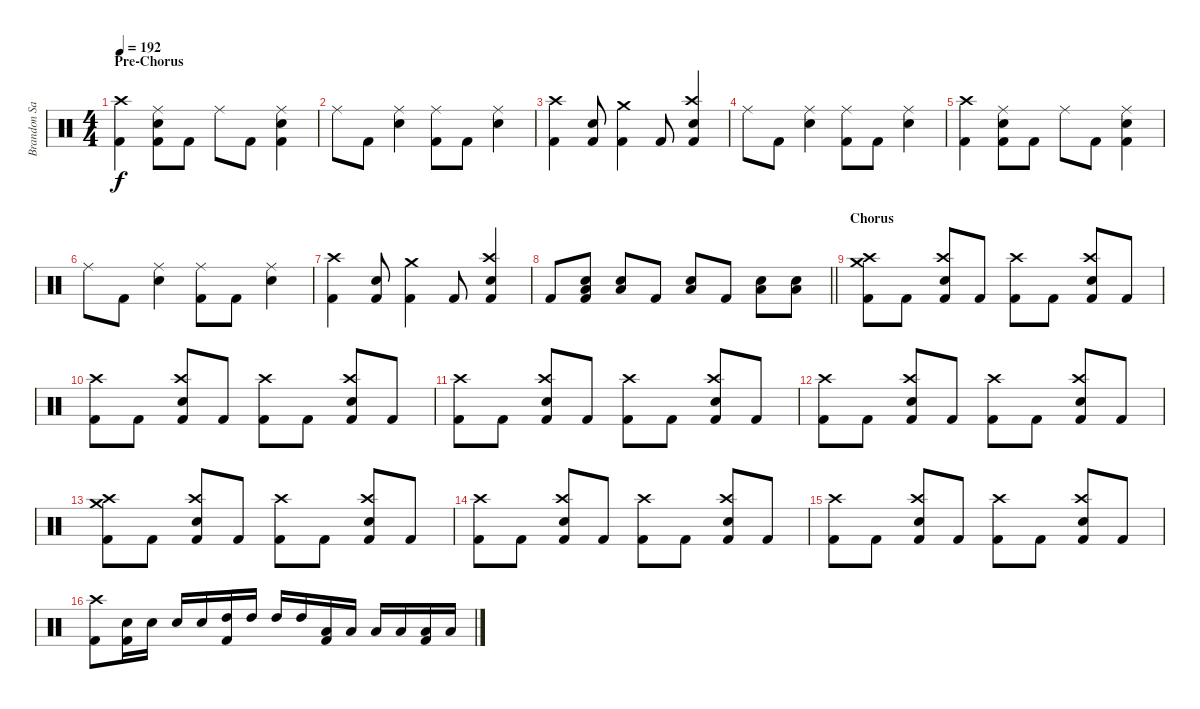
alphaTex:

\track ("Brandon Saller" "Brandon Sa") {instrument percussion}
\staff {score}
\articulation defaults
\ts (4 4)
\section ("" "Pre-Chorus")
\tempo 192
\clef neutral
\ks aminor
("Kick (hit) 2" "Crash high (hit)").4{dy f} ("Kick (hit) 2" "Snare (hit) 2" "Ride (middle)").8 "Kick (hit) 2".8 "Ride (middle)".8 "Kick (hit) 2".8 ("Kick (hit) 2" "Snare (hit) 2" "Ride (middle)").4 |
"Ride (middle)".8 "Kick (hit) 2".8 ("Snare (hit) 2" "Ride (middle)").4 ("Kick (hit) 2" "Ride (middle)").8 "Kick (hit) 2".8 ("Snare (hit) 2" "Ride (middle)").4 |
("Kick (hit) 2" "Crash high (hit)").4 ("Kick (hit) 2" "Snare (hit) 2").8 ("Kick (hit) 2" "Crash medium (hit)").4 "Kick (hit) 2".8 ("Kick (hit) 2" "Snare (hit) 2" "Crash high (hit)").4 |
"Ride (middle)".8 "Kick (hit) 2".8 ("Snare (hit) 2" "Ride (middle)").4 ("Kick (hit) 2" "Ride (middle)").8 "Kick (hit) 2".8 ("Snare (hit) 2" "Ride (middle)").4 |
("Kick (hit) 2" "Crash high (hit)").4 ("Kick (hit) 2" "Snare (hit) 2" "Ride (middle)").8 "Kick (hit) 2".8 "Ride (middle)".8 "Kick (hit) 2".8 ("Kick (hit) 2" "Snare (hit) 2" "Ride (middle)").4 |
"Ride (middle)".8 "Kick (hit) 2".8 ("Snare (hit) 2" "Ride (middle)").4 ("Kick (hit) 2" "Ride (middle)").8 "Kick (hit) 2".8 ("Snare (hit) 2" "Ride (middle)").4 |
("Kick (hit) 2" "Crash high (hit)").4 ("Kick (hit) 2" "Snare (hit) 2").8 ("Kick (hit) 2" "Crash medium (hit)").4 "Kick (hit) 2".8 ("Kick (hit) 2" "Snare (hit) 2" "Crash high (hit)").4 |
\barLineRight lightlight "Kick (hit) 2".8
("Kick (hit) 2" "Snare (hit) 2" "Low Floor Tom (hit)").8 ("Snare (hit) 2" "Low Floor Tom (hit)").8 "Kick (hit) 2".8 ("Snare (hit) 2" "Low Floor Tom (hit)").8 "Kick (hit) 2".8 ("Snare (hit) 2" "Low Floor Tom (hit)").8 ("Snare (hit) 2" "Low Floor Tom (hit)").8 |
\section ("" "Chorus")
("Kick (hit) 2" "Crash medium (hit)" "Crash high (hit)").8 "Kick (hit) 2".8 ("Kick (hit) 2" "Snare (hit) 2" "Crash high (hit)").8 "Kick (hit) 2".8 ("Kick (hit) 2" "Crash high (hit)").8 "Kick (hit) 2".8 ("Kick (hit) 2" "Snare (hit) 2" "Crash high (hit)").8 "Kick (hit) 2".8 |
("Kick (hit) 2" "Crash high (hit)").8 "Kick (hit) 2".8 ("Kick (hit) 2" "Snare (hit) 2" "Crash high (hit)").8 "Kick (hit) 2".8 ("Kick (hit) 2" "Crash high (hit)").8 "Kick (hit) 2".8 ("Kick (hit) 2" "Snare (hit) 2" "Crash high (hit)").8 "Kick (hit) 2".8 |
("Kick (hit) 2" "Crash high (hit)").8 "Kick (hit) 2".8 ("Kick (hit) 2" "Snare (hit) 2" "Crash high (hit)").8 "Kick (hit) 2".8 ("Kick (hit) 2" "Crash high (hit)").8 "Kick (hit) 2".8 ("Kick (hit) 2" "Snare (hit) 2" "Crash high (hit)").8 "Kick (hit) 2".8 |
("Kick (hit) 2" "Crash high (hit)").8 "Kick (hit) 2".8 ("Kick (hit) 2" "Snare (hit) 2" "Crash high (hit)").8 "Kick (hit) 2".8 ("Kick (hit) 2" "Crash high (hit)").8 "Kick (hit) 2".8 ("Kick (hit) 2" "Snare (hit) 2" "Crash high (hit)").8 "Kick (hit) 2".8 |
("Kick (hit) 2" "Crash medium (hit)" "Crash high (hit)").8 "Kick (hit) 2".8 ("Kick (hit) 2" "Snare (hit) 2" "Crash high (hit)").8 "Kick (hit) 2".8 ("Kick (hit) 2" "Crash high (hit)").8 "Kick (hit) 2".8 ("Kick (hit) 2" "Snare (hit) 2" "Crash high (hit)").8 "Kick (hit) 2".8 |
("Kick (hit) 2" "Crash high (hit)").8 "Kick (hit) 2".8 ("Kick (hit) 2" "Snare (hit) 2" "Crash high (hit)").8 "Kick (hit) 2".8 ("Kick (hit) 2" "Crash high (hit)").8 "Kick (hit) 2".8 ("Kick (hit) 2" "Snare (hit) 2" "Crash high (hit)").8 "Kick (hit) 2".8 |
("Kick (hit) 2" "Crash high (hit)").8 "Kick (hit) 2".8 ("Kick (hit) 2" "Snare (hit) 2" "Crash high (hit)").8 "Kick (hit) 2".8 ("Kick (hit) 2" "Crash high (hit)").8 "Kick (hit) 2".8 ("Kick (hit) 2" "Snare (hit) 2" "Crash high (hit)").8 "Kick (hit) 2".8 |
("Kick (hit) 2" "Crash high (hit)").8 ("Kick (hit) 2" "Snare (hit) 2").16 "Snare (hit) 2".16 "Snare (hit) 2".16 "Snare (hit) 2".16 ("Kick (hit) 2" "High Tom (hit)").16 "High Tom (hit)".16 "High Tom (hit)".16 "High Tom (hit)".16 ("Kick (hit) 2" "Low Tom (hit)").16 "Low Tom (hit)".16 "Low Tom (hit)".16 "Low Tom (hit)".16 ("Kick (hit) 2" "Low Floor Tom (hit)").16 "Low Floor Tom (hit)".16
